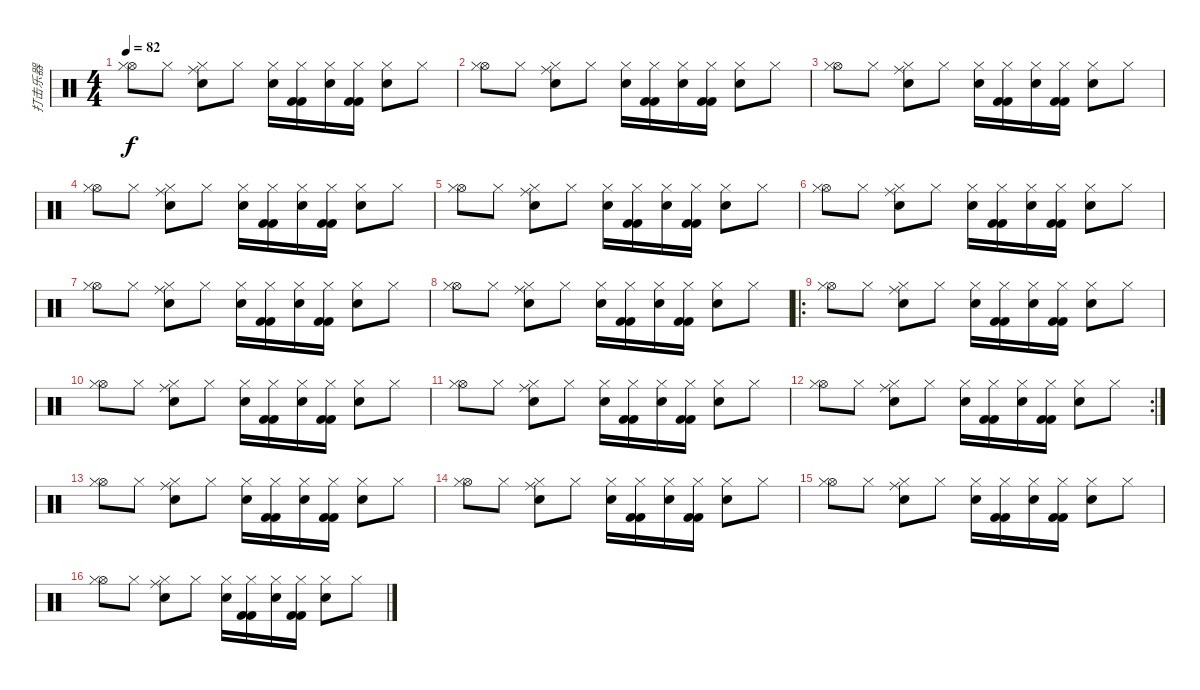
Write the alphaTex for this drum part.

\track ("打击乐器" "打击乐器") {instrument percussion}
\staff {score}
\articulation defaults
\ts (4 4)
\tempo 82
\clef neutral
\ks c
("Hi-Hat (open)" "Hi-Hat (closed)").8{dy f} "Hi-Hat (closed)".8 ("Ride (middle)" "Snare (hit) 2" "Hi-Hat (closed)").8 "Hi-Hat (closed)".8 ("Snare (hit) 2" "Hi-Hat (closed)").16 ("Kick (hit) 2" "Kick (hit) 2" "Hi-Hat (closed)").16 ("Snare (hit) 2" "Hi-Hat (closed)").16 ("Kick (hit) 2" "Kick (hit) 2" "Hi-Hat (closed)").16 ("Snare (hit) 2" "Hi-Hat (closed)").8 "Hi-Hat (closed)".8 |
("Hi-Hat (open)" "Hi-Hat (closed)").8 "Hi-Hat (closed)".8 ("Ride (middle)" "Snare (hit) 2" "Hi-Hat (closed)").8 "Hi-Hat (closed)".8 ("Snare (hit) 2" "Hi-Hat (closed)").16 ("Kick (hit) 2" "Kick (hit) 2" "Hi-Hat (closed)").16 ("Snare (hit) 2" "Hi-Hat (closed)").16 ("Kick (hit) 2" "Kick (hit) 2" "Hi-Hat (closed)").16 ("Snare (hit) 2" "Hi-Hat (closed)").8 "Hi-Hat (closed)".8 |
("Hi-Hat (open)" "Hi-Hat (closed)").8 "Hi-Hat (closed)".8 ("Ride (middle)" "Snare (hit) 2" "Hi-Hat (closed)").8 "Hi-Hat (closed)".8 ("Snare (hit) 2" "Hi-Hat (closed)").16 ("Kick (hit) 2" "Kick (hit) 2" "Hi-Hat (closed)").16 ("Snare (hit) 2" "Hi-Hat (closed)").16 ("Kick (hit) 2" "Kick (hit) 2" "Hi-Hat (closed)").16 ("Snare (hit) 2" "Hi-Hat (closed)").8 "Hi-Hat (closed)".8 |
("Hi-Hat (open)" "Hi-Hat (closed)").8 "Hi-Hat (closed)".8 ("Ride (middle)" "Snare (hit) 2" "Hi-Hat (closed)").8 "Hi-Hat (closed)".8 ("Snare (hit) 2" "Hi-Hat (closed)").16 ("Kick (hit) 2" "Kick (hit) 2" "Hi-Hat (closed)").16 ("Snare (hit) 2" "Hi-Hat (closed)").16 ("Kick (hit) 2" "Kick (hit) 2" "Hi-Hat (closed)").16 ("Snare (hit) 2" "Hi-Hat (closed)").8 "Hi-Hat (closed)".8 |
("Hi-Hat (open)" "Hi-Hat (closed)").8 "Hi-Hat (closed)".8 ("Ride (middle)" "Snare (hit) 2" "Hi-Hat (closed)").8 "Hi-Hat (closed)".8 ("Snare (hit) 2" "Hi-Hat (closed)").16 ("Kick (hit) 2" "Kick (hit) 2" "Hi-Hat (closed)").16 ("Snare (hit) 2" "Hi-Hat (closed)").16 ("Kick (hit) 2" "Kick (hit) 2" "Hi-Hat (closed)").16 ("Snare (hit) 2" "Hi-Hat (closed)").8 "Hi-Hat (closed)".8 |
("Hi-Hat (open)" "Hi-Hat (closed)").8 "Hi-Hat (closed)".8 ("Ride (middle)" "Snare (hit) 2" "Hi-Hat (closed)").8 "Hi-Hat (closed)".8 ("Snare (hit) 2" "Hi-Hat (closed)").16 ("Kick (hit) 2" "Kick (hit) 2" "Hi-Hat (closed)").16 ("Snare (hit) 2" "Hi-Hat (closed)").16 ("Kick (hit) 2" "Kick (hit) 2" "Hi-Hat (closed)").16 ("Snare (hit) 2" "Hi-Hat (closed)").8 "Hi-Hat (closed)".8 |
("Hi-Hat (open)" "Hi-Hat (closed)").8 "Hi-Hat (closed)".8 ("Ride (middle)" "Snare (hit) 2" "Hi-Hat (closed)").8 "Hi-Hat (closed)".8 ("Snare (hit) 2" "Hi-Hat (closed)").16 ("Kick (hit) 2" "Kick (hit) 2" "Hi-Hat (closed)").16 ("Snare (hit) 2" "Hi-Hat (closed)").16 ("Kick (hit) 2" "Kick (hit) 2" "Hi-Hat (closed)").16 ("Snare (hit) 2" "Hi-Hat (closed)").8 "Hi-Hat (closed)".8 |
("Hi-Hat (open)" "Hi-Hat (closed)").8 "Hi-Hat (closed)".8 ("Ride (middle)" "Snare (hit) 2" "Hi-Hat (closed)").8 "Hi-Hat (closed)".8 ("Snare (hit) 2" "Hi-Hat (closed)").16 ("Kick (hit) 2" "Kick (hit) 2" "Hi-Hat (closed)").16 ("Snare (hit) 2" "Hi-Hat (closed)").16 ("Kick (hit) 2" "Kick (hit) 2" "Hi-Hat (closed)").16 ("Snare (hit) 2" "Hi-Hat (closed)").8 "Hi-Hat (closed)".8 |
\ro
("Hi-Hat (open)" "Hi-Hat (closed)").8 "Hi-Hat (closed)".8 ("Ride (middle)" "Snare (hit) 2" "Hi-Hat (closed)").8 "Hi-Hat (closed)".8 ("Snare (hit) 2" "Hi-Hat (closed)").16 ("Kick (hit) 2" "Kick (hit) 2" "Hi-Hat (closed)").16 ("Snare (hit) 2" "Hi-Hat (closed)").16 ("Kick (hit) 2" "Kick (hit) 2" "Hi-Hat (closed)").16 ("Snare (hit) 2" "Hi-Hat (closed)").8 "Hi-Hat (closed)".8 |
("Hi-Hat (open)" "Hi-Hat (closed)").8 "Hi-Hat (closed)".8 ("Ride (middle)" "Snare (hit) 2" "Hi-Hat (closed)").8 "Hi-Hat (closed)".8 ("Snare (hit) 2" "Hi-Hat (closed)").16 ("Kick (hit) 2" "Kick (hit) 2" "Hi-Hat (closed)").16 ("Snare (hit) 2" "Hi-Hat (closed)").16 ("Kick (hit) 2" "Kick (hit) 2" "Hi-Hat (closed)").16 ("Snare (hit) 2" "Hi-Hat (closed)").8 "Hi-Hat (closed)".8 |
("Hi-Hat (open)" "Hi-Hat (closed)").8 "Hi-Hat (closed)".8 ("Ride (middle)" "Snare (hit) 2" "Hi-Hat (closed)").8 "Hi-Hat (closed)".8 ("Snare (hit) 2" "Hi-Hat (closed)").16 ("Kick (hit) 2" "Kick (hit) 2" "Hi-Hat (closed)").16 ("Snare (hit) 2" "Hi-Hat (closed)").16 ("Kick (hit) 2" "Kick (hit) 2" "Hi-Hat (closed)").16 ("Snare (hit) 2" "Hi-Hat (closed)").8 "Hi-Hat (closed)".8 |
\rc 2
("Hi-Hat (open)" "Hi-Hat (closed)").8 "Hi-Hat (closed)".8 ("Ride (middle)" "Snare (hit) 2" "Hi-Hat (closed)").8 "Hi-Hat (closed)".8 ("Snare (hit) 2" "Hi-Hat (closed)").16 ("Kick (hit) 2" "Kick (hit) 2" "Hi-Hat (closed)").16 ("Snare (hit) 2" "Hi-Hat (closed)").16 ("Kick (hit) 2" "Kick (hit) 2" "Hi-Hat (closed)").16 ("Snare (hit) 2" "Hi-Hat (closed)").8 "Hi-Hat (closed)".8 |
("Hi-Hat (open)" "Hi-Hat (closed)").8 "Hi-Hat (closed)".8 ("Ride (middle)" "Snare (hit) 2" "Hi-Hat (closed)").8 "Hi-Hat (closed)".8 ("Snare (hit) 2" "Hi-Hat (closed)").16 ("Kick (hit) 2" "Kick (hit) 2" "Hi-Hat (closed)").16 ("Snare (hit) 2" "Hi-Hat (closed)").16 ("Kick (hit) 2" "Kick (hit) 2" "Hi-Hat (closed)").16 ("Snare (hit) 2" "Hi-Hat (closed)").8 "Hi-Hat (closed)".8 |
("Hi-Hat (open)" "Hi-Hat (closed)").8 "Hi-Hat (closed)".8 ("Ride (middle)" "Snare (hit) 2" "Hi-Hat (closed)").8 "Hi-Hat (closed)".8 ("Snare (hit) 2" "Hi-Hat (closed)").16 ("Kick (hit) 2" "Kick (hit) 2" "Hi-Hat (closed)").16 ("Snare (hit) 2" "Hi-Hat (closed)").16 ("Kick (hit) 2" "Kick (hit) 2" "Hi-Hat (closed)").16 ("Snare (hit) 2" "Hi-Hat (closed)").8 "Hi-Hat (closed)".8 |
("Hi-Hat (open)" "Hi-Hat (closed)").8 "Hi-Hat (closed)".8 ("Ride (middle)" "Snare (hit) 2" "Hi-Hat (closed)").8 "Hi-Hat (closed)".8 ("Snare (hit) 2" "Hi-Hat (closed)").16 ("Kick (hit) 2" "Kick (hit) 2" "Hi-Hat (closed)").16 ("Snare (hit) 2" "Hi-Hat (closed)").16 ("Kick (hit) 2" "Kick (hit) 2" "Hi-Hat (closed)").16 ("Snare (hit) 2" "Hi-Hat (closed)").8 "Hi-Hat (closed)".8 |
("Hi-Hat (open)" "Hi-Hat (closed)").8 "Hi-Hat (closed)".8 ("Ride (middle)" "Snare (hit) 2" "Hi-Hat (closed)").8 "Hi-Hat (closed)".8 ("Snare (hit) 2" "Hi-Hat (closed)").16 ("Kick (hit) 2" "Kick (hit) 2" "Hi-Hat (closed)").16 ("Snare (hit) 2" "Hi-Hat (closed)").16 ("Kick (hit) 2" "Kick (hit) 2" "Hi-Hat (closed)").16 ("Snare (hit) 2" "Hi-Hat (closed)").8 "Hi-Hat (closed)".8
